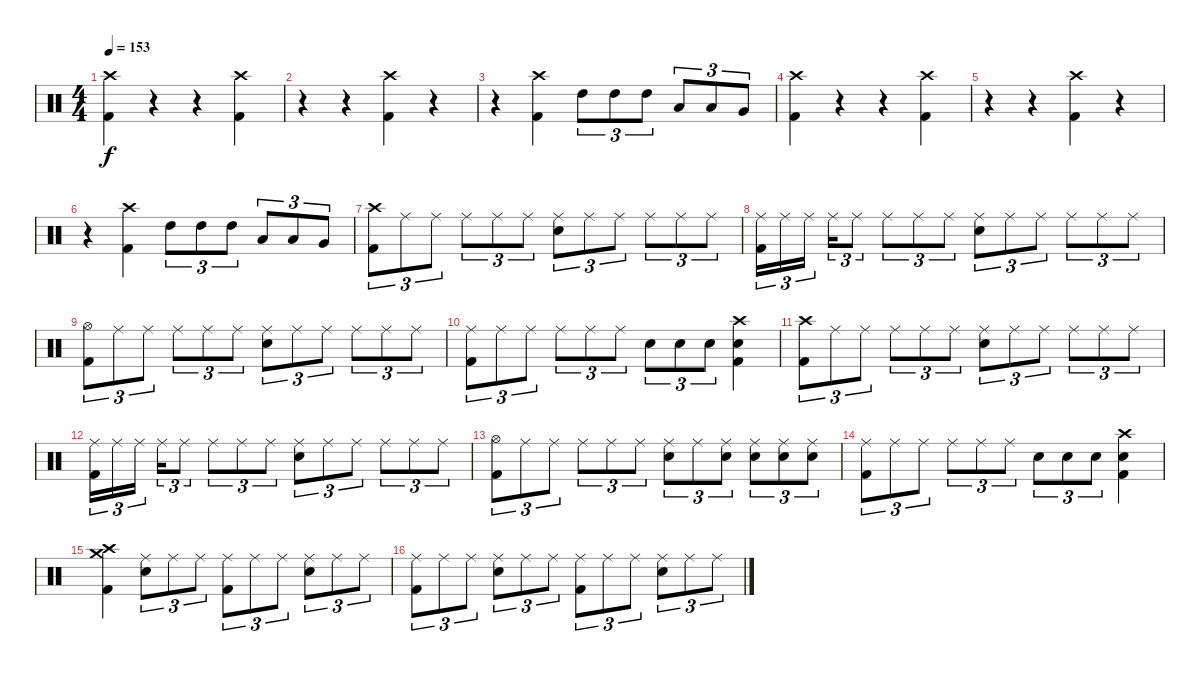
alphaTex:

\track "" {instrument percussion}
\staff {score}
\articulation defaults
\ts (4 4)
\section ("" "")
\tempo 153
\clef neutral
\ks c
("Crash high (hit)" "Kick (hit) 2").4{dy f} r.4{volume 0} r.4 ("Crash high (hit)" "Kick (hit) 2").4{volume 16} |
r.4{volume 0} r.4 ("Crash high (hit)" "Kick (hit) 2").4{volume 16} r.4{volume 0} |
r.4 ("Crash high (hit)" "Kick (hit) 2").4{volume 13} "High Tom (hit)".8{tu (3 2)} "High Tom (hit)".8{tu (3 2)} "High Tom (hit)".8{tu (3 2)} "Low Tom (hit)".8{tu (3 2)} "Low Tom (hit)".8{tu (3 2)} "Very Low Tom (hit)".8{tu (3 2)} |
("Crash high (hit)" "Kick (hit) 2").4 r.4{volume 0} r.4 ("Crash high (hit)" "Kick (hit) 2").4{volume 16} |
r.4{volume 0} r.4 ("Crash high (hit)" "Kick (hit) 2").4{volume 16} r.4{volume 0} |
r.4 ("Crash high (hit)" "Kick (hit) 2").4{volume 13} "High Tom (hit)".8{tu (3 2)} "High Tom (hit)".8{tu (3 2)} "High Tom (hit)".8{tu (3 2)} "Low Tom (hit)".8{tu (3 2)} "Low Tom (hit)".8{tu (3 2)} "Very Low Tom (hit)".8{tu (3 2)} |
\section ("" "")
("Crash high (hit)" "Kick (hit) 2").8{tu (3 2)} "Ride (middle)".8{tu (3 2)} "Ride (middle)".8{tu (3 2)} "Ride (middle)".8{tu (3 2)} "Ride (middle)".8{tu (3 2)} "Ride (middle)".8{tu (3 2)} ("Ride (middle)" "Electric Snare (hit)").8{tu (3 2)} "Ride (middle)".8{tu (3 2)} "Ride (middle)".8{tu (3 2)} "Ride (middle)".8{tu (3 2)} "Ride (middle)".8{tu (3 2)} "Ride (middle)".8{tu (3 2)} |
("Ride (middle)" "Kick (hit) 2").16{tu (3 2)} "Ride (middle)".16{tu (3 2)} "Ride (middle)".16{tu (3 2)} "Ride (middle)".16{tu (3 2)} "Ride (middle)".8{tu (3 2)} "Ride (middle)".8{tu (3 2)} "Ride (middle)".8{tu (3 2)} "Ride (middle)".8{tu (3 2)} ("Ride (middle)" "Electric Snare (hit)").8{tu (3 2)} "Ride (middle)".8{tu (3 2)} "Ride (middle)".8{tu (3 2)} "Ride (middle)".8{tu (3 2)} "Ride (middle)".8{tu (3 2)} "Ride (middle)".8{tu (3 2)} |
("Hi-Hat (open)" "Kick (hit) 2").8{tu (3 2)} "Ride (middle)".8{tu (3 2)} "Ride (middle)".8{tu (3 2)} "Ride (middle)".8{tu (3 2)} "Ride (middle)".8{tu (3 2)} "Ride (middle)".8{tu (3 2)} ("Ride (middle)" "Electric Snare (hit)").8{tu (3 2)} "Ride (middle)".8{tu (3 2)} "Ride (middle)".8{tu (3 2)} "Ride (middle)".8{tu (3 2)} "Ride (middle)".8{tu (3 2)} "Ride (middle)".8{tu (3 2)} |
("Ride (middle)" "Kick (hit) 2").8{tu (3 2)} "Ride (middle)".8{tu (3 2)} "Ride (middle)".8{tu (3 2)} "Ride (middle)".8{tu (3 2)} "Ride (middle)".8{tu (3 2)} "Ride (middle)".8{tu (3 2)} "Electric Snare (hit)".8{tu (3 2)} "Electric Snare (hit)".8{tu (3 2)} "Electric Snare (hit)".8{tu (3 2)} ("Crash high (hit)" "Electric Snare (hit)" "Kick (hit) 2").4 |
("Crash high (hit)" "Kick (hit) 2").8{tu (3 2)} "Ride (middle)".8{tu (3 2)} "Ride (middle)".8{tu (3 2)} "Ride (middle)".8{tu (3 2)} "Ride (middle)".8{tu (3 2)} "Ride (middle)".8{tu (3 2)} ("Ride (middle)" "Electric Snare (hit)").8{tu (3 2)} "Ride (middle)".8{tu (3 2)} "Ride (middle)".8{tu (3 2)} "Ride (middle)".8{tu (3 2)} "Ride (middle)".8{tu (3 2)} "Ride (middle)".8{tu (3 2)} |
("Ride (middle)" "Kick (hit) 2").16{tu (3 2)} "Ride (middle)".16{tu (3 2)} "Ride (middle)".16{tu (3 2)} "Ride (middle)".16{tu (3 2)} "Ride (middle)".8{tu (3 2)} "Ride (middle)".8{tu (3 2)} "Ride (middle)".8{tu (3 2)} "Ride (middle)".8{tu (3 2)} ("Ride (middle)" "Electric Snare (hit)").8{tu (3 2)} "Ride (middle)".8{tu (3 2)} "Ride (middle)".8{tu (3 2)} "Ride (middle)".8{tu (3 2)} "Ride (middle)".8{tu (3 2)} "Ride (middle)".8{tu (3 2)} |
("Hi-Hat (open)" "Kick (hit) 2").8{tu (3 2)} "Ride (middle)".8{tu (3 2)} "Ride (middle)".8{tu (3 2)} "Ride (middle)".8{tu (3 2)} "Ride (middle)".8{tu (3 2)} "Ride (middle)".8{tu (3 2)} ("Ride (middle)" "Electric Snare (hit)").8{tu (3 2)} "Ride (middle)".8{tu (3 2)} ("Ride (middle)" "Electric Snare (hit)").8{tu (3 2)} ("Ride (middle)" "Electric Snare (hit)").8{tu (3 2)} ("Ride (middle)" "Electric Snare (hit)").8{tu (3 2)} ("Ride (middle)" "Electric Snare (hit)").8{tu (3 2)} |
("Ride (middle)" "Kick (hit) 2").8{tu (3 2)} "Ride (middle)".8{tu (3 2)} "Ride (middle)".8{tu (3 2)} "Ride (middle)".8{tu (3 2)} "Ride (middle)".8{tu (3 2)} "Ride (middle)".8{tu (3 2)} "Electric Snare (hit)".8{tu (3 2)} "Electric Snare (hit)".8{tu (3 2)} "Electric Snare (hit)".8{tu (3 2)} ("Crash high (hit)" "Electric Snare (hit)" "Kick (hit) 2").4 |
\section ("" "")
("Crash high (hit)" "Crash medium (hit)" "Kick (hit) 2").4 ("Ride (middle)" "Electric Snare (hit)").8{tu (3 2)} "Ride (middle)".8{tu (3 2)} "Ride (middle)".8{tu (3 2)} ("Ride (middle)" "Kick (hit) 2").8{tu (3 2)} "Ride (middle)".8{tu (3 2)} "Ride (middle)".8{tu (3 2)} ("Ride (middle)" "Electric Snare (hit)").8{tu (3 2)} "Ride (middle)".8{tu (3 2)} "Ride (middle)".8{tu (3 2)} |
("Ride (middle)" "Kick (hit) 2").8{tu (3 2)} "Ride (middle)".8{tu (3 2)} "Ride (middle)".8{tu (3 2)} ("Ride (middle)" "Electric Snare (hit)").8{tu (3 2)} "Ride (middle)".8{tu (3 2)} "Ride (middle)".8{tu (3 2)} ("Ride (middle)" "Kick (hit) 2").8{tu (3 2)} "Ride (middle)".8{tu (3 2)} "Ride (middle)".8{tu (3 2)} ("Ride (middle)" "Electric Snare (hit)").8{tu (3 2)} "Ride (middle)".8{tu (3 2)} "Ride (middle)".8{tu (3 2)}
